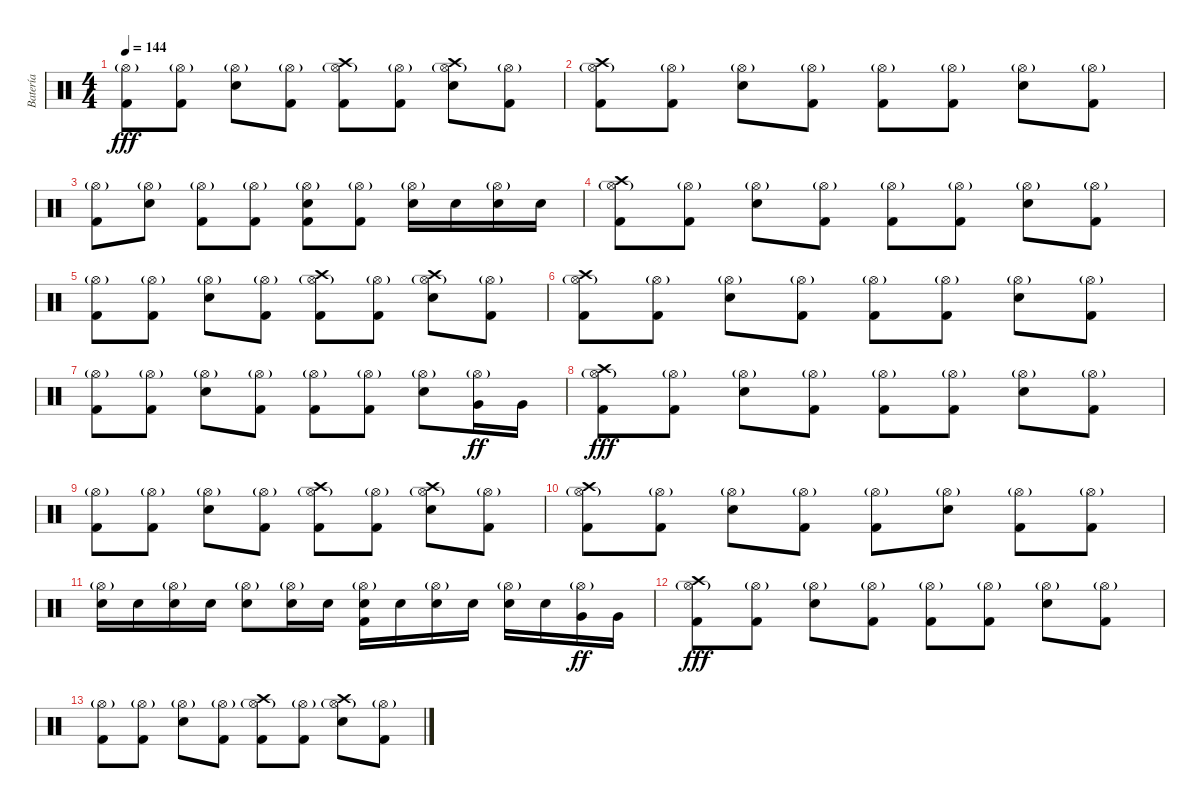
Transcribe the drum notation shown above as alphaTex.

\track ("Batería" "Batería") {instrument percussion}
\staff {score}
\articulation defaults
\ts (4 4)
\tempo 144
\clef neutral
\ks c
("Hi-Hat (open)"{g} "Kick (hit) 2").8{dy fff} ("Hi-Hat (open)"{g} "Kick (hit) 2").8 ("Hi-Hat (open)"{g} "Electric Snare (hit)").8 ("Hi-Hat (open)"{g} "Kick (hit) 2").8 ("Hi-Hat (open)"{g} "Kick (hit) 2" "Crash high (hit)").8 ("Hi-Hat (open)"{g} "Kick (hit) 2").8 ("Hi-Hat (open)"{g} "Electric Snare (hit)" "Crash high (hit)").8 ("Hi-Hat (open)"{g} "Kick (hit) 2").8 |
("Hi-Hat (open)"{g} "Kick (hit) 2" "Crash high (hit)").8 ("Hi-Hat (open)"{g} "Kick (hit) 2").8 ("Hi-Hat (open)"{g} "Electric Snare (hit)").8 ("Hi-Hat (open)"{g} "Kick (hit) 2").8 ("Hi-Hat (open)"{g} "Kick (hit) 2").8 ("Hi-Hat (open)"{g} "Kick (hit) 2").8 ("Hi-Hat (open)"{g} "Electric Snare (hit)").8 ("Hi-Hat (open)"{g} "Kick (hit) 2").8 |
("Hi-Hat (open)"{g} "Kick (hit) 2").8 ("Hi-Hat (open)"{g} "Electric Snare (hit)").8 ("Hi-Hat (open)"{g} "Kick (hit) 2").8 ("Hi-Hat (open)"{g} "Kick (hit) 2").8 ("Hi-Hat (open)"{g} "Electric Snare (hit)" "Kick (hit) 2").8 ("Hi-Hat (open)"{g} "Kick (hit) 2").8 ("Hi-Hat (open)"{g} "Electric Snare (hit)").16 "Electric Snare (hit)".16 ("Hi-Hat (open)"{g} "Electric Snare (hit)").16 "Electric Snare (hit)".16 |
("Hi-Hat (open)"{g} "Kick (hit) 2" "Crash high (hit)").8 ("Hi-Hat (open)"{g} "Kick (hit) 2").8 ("Hi-Hat (open)"{g} "Electric Snare (hit)").8 ("Hi-Hat (open)"{g} "Kick (hit) 2").8 ("Hi-Hat (open)"{g} "Kick (hit) 2").8 ("Hi-Hat (open)"{g} "Kick (hit) 2").8 ("Hi-Hat (open)"{g} "Electric Snare (hit)").8 ("Hi-Hat (open)"{g} "Kick (hit) 2").8 |
("Hi-Hat (open)"{g} "Kick (hit) 2").8 ("Hi-Hat (open)"{g} "Kick (hit) 2").8 ("Hi-Hat (open)"{g} "Electric Snare (hit)").8 ("Hi-Hat (open)"{g} "Kick (hit) 2").8 ("Hi-Hat (open)"{g} "Kick (hit) 2" "Crash high (hit)").8 ("Hi-Hat (open)"{g} "Kick (hit) 2").8 ("Hi-Hat (open)"{g} "Electric Snare (hit)" "Crash high (hit)").8 ("Hi-Hat (open)"{g} "Kick (hit) 2").8 |
("Hi-Hat (open)"{g} "Kick (hit) 2" "Crash high (hit)").8 ("Hi-Hat (open)"{g} "Kick (hit) 2").8 ("Hi-Hat (open)"{g} "Electric Snare (hit)").8 ("Hi-Hat (open)"{g} "Kick (hit) 2").8 ("Hi-Hat (open)"{g} "Kick (hit) 2").8 ("Hi-Hat (open)"{g} "Kick (hit) 2").8 ("Hi-Hat (open)"{g} "Electric Snare (hit)").8 ("Hi-Hat (open)"{g} "Kick (hit) 2").8 |
("Hi-Hat (open)"{g} "Kick (hit) 2").8 ("Hi-Hat (open)"{g} "Kick (hit) 2").8 ("Hi-Hat (open)"{g} "Electric Snare (hit)").8 ("Hi-Hat (open)"{g} "Kick (hit) 2").8 ("Hi-Hat (open)"{g} "Kick (hit) 2").8 ("Hi-Hat (open)"{g} "Kick (hit) 2").8 ("Hi-Hat (open)"{g} "Electric Snare (hit)").8 ("Hi-Hat (open)"{g} "Very Low Tom (hit)").16{dy ff} "Very Low Tom (hit)".16 |
("Hi-Hat (open)"{g} "Kick (hit) 2" "Crash high (hit)").8{dy fff} ("Hi-Hat (open)"{g} "Kick (hit) 2").8 ("Hi-Hat (open)"{g} "Electric Snare (hit)").8 ("Hi-Hat (open)"{g} "Kick (hit) 2").8 ("Hi-Hat (open)"{g} "Kick (hit) 2").8 ("Hi-Hat (open)"{g} "Kick (hit) 2").8 ("Hi-Hat (open)"{g} "Electric Snare (hit)").8 ("Hi-Hat (open)"{g} "Kick (hit) 2").8 |
("Hi-Hat (open)"{g} "Kick (hit) 2").8 ("Hi-Hat (open)"{g} "Kick (hit) 2").8 ("Hi-Hat (open)"{g} "Electric Snare (hit)").8 ("Hi-Hat (open)"{g} "Kick (hit) 2").8 ("Hi-Hat (open)"{g} "Kick (hit) 2" "Crash high (hit)").8 ("Hi-Hat (open)"{g} "Kick (hit) 2").8 ("Hi-Hat (open)"{g} "Electric Snare (hit)" "Crash high (hit)").8 ("Hi-Hat (open)"{g} "Kick (hit) 2").8 |
("Hi-Hat (open)"{g} "Kick (hit) 2" "Crash high (hit)").8{volume 0} ("Hi-Hat (open)"{g} "Kick (hit) 2").8 ("Hi-Hat (open)"{g} "Electric Snare (hit)").8 ("Hi-Hat (open)"{g} "Kick (hit) 2").8 ("Hi-Hat (open)"{g} "Kick (hit) 2").8 ("Hi-Hat (open)"{g} "Electric Snare (hit)").8 ("Hi-Hat (open)"{g} "Kick (hit) 2").8 ("Hi-Hat (open)"{g} "Kick (hit) 2").8 |
("Hi-Hat (open)"{g} "Electric Snare (hit)").16 "Electric Snare (hit)".16 ("Hi-Hat (open)"{g} "Electric Snare (hit)").16 "Electric Snare (hit)".16 ("Hi-Hat (open)"{g} "Electric Snare (hit)").8 ("Hi-Hat (open)"{g} "Electric Snare (hit)").16 "Electric Snare (hit)".16 ("Hi-Hat (open)"{g} "Electric Snare (hit)" "Kick (hit) 2").16 "Electric Snare (hit)".16 ("Hi-Hat (open)"{g} "Electric Snare (hit)").16 "Electric Snare (hit)".16 ("Hi-Hat (open)"{g} "Electric Snare (hit)").16 "Electric Snare (hit)".16 ("Hi-Hat (open)"{g} "Very Low Tom (hit)").16{dy ff} "Very Low Tom (hit)".16 |
("Hi-Hat (open)"{g} "Kick (hit) 2" "Crash high (hit)").8{dy fff} ("Hi-Hat (open)"{g} "Kick (hit) 2").8 ("Hi-Hat (open)"{g} "Electric Snare (hit)").8 ("Hi-Hat (open)"{g} "Kick (hit) 2").8 ("Hi-Hat (open)"{g} "Kick (hit) 2").8 ("Hi-Hat (open)"{g} "Kick (hit) 2").8 ("Hi-Hat (open)"{g} "Electric Snare (hit)").8 ("Hi-Hat (open)"{g} "Kick (hit) 2").8 |
("Hi-Hat (open)"{g} "Kick (hit) 2").8 ("Hi-Hat (open)"{g} "Kick (hit) 2").8 ("Hi-Hat (open)"{g} "Electric Snare (hit)").8 ("Hi-Hat (open)"{g} "Kick (hit) 2").8 ("Hi-Hat (open)"{g} "Kick (hit) 2" "Crash high (hit)").8 ("Hi-Hat (open)"{g} "Kick (hit) 2").8 ("Hi-Hat (open)"{g} "Electric Snare (hit)" "Crash high (hit)").8 ("Hi-Hat (open)"{g} "Kick (hit) 2").8
